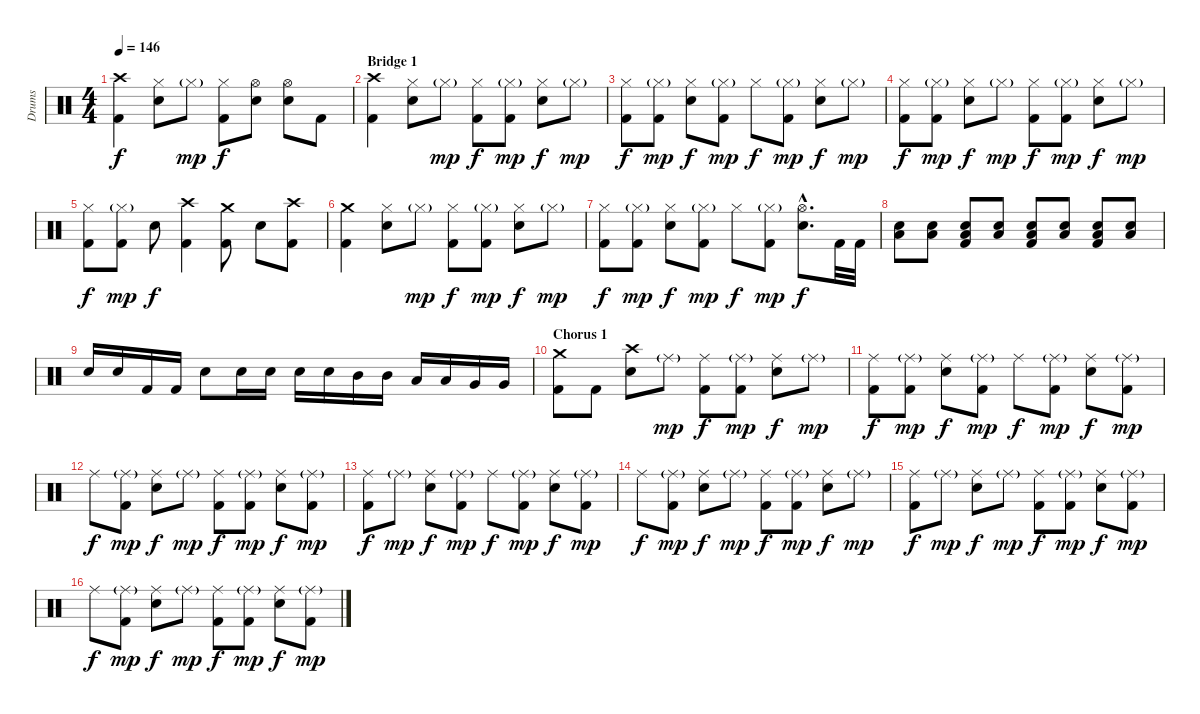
\track ("Drums" "Drums") {instrument percussion}
\staff {score}
\articulation defaults
\ts (4 4)
\tempo 146
\clef neutral
\ks c
("Crash high (hit)" "Kick (hit) 2").4{dy f} ("Hi-Hat (closed)" "Snare (hit) 2").8 "Hi-Hat (closed)"{g}.8{dy mp} ("Hi-Hat (closed)" "Kick (hit) 2").8{dy f} ("Hi-Hat (open)" "Snare (hit) 2").8 ("Hi-Hat (open)" "Snare (hit) 2").8 "Kick (hit) 2".8 |
\section ("" "Bridge 1")
("Crash high (hit)" "Kick (hit) 2").4 ("Hi-Hat (closed)" "Snare (hit) 2").8 "Hi-Hat (closed)"{g}.8{dy mp} ("Hi-Hat (closed)" "Kick (hit) 2").8{dy f} ("Hi-Hat (closed)"{g} "Kick (hit) 2").8{dy mp} ("Hi-Hat (closed)" "Snare (hit) 2").8{dy f} "Hi-Hat (closed)"{g}.8{dy mp} |
("Hi-Hat (closed)" "Kick (hit) 2").8{dy f} ("Hi-Hat (closed)"{g} "Kick (hit) 2").8{dy mp} ("Hi-Hat (closed)" "Snare (hit) 2").8{dy f} ("Hi-Hat (closed)"{g} "Kick (hit) 2").8{dy mp} "Hi-Hat (closed)".8{dy f} ("Hi-Hat (closed)"{g} "Kick (hit) 2").8{dy mp} ("Hi-Hat (closed)" "Snare (hit) 2").8{dy f} "Hi-Hat (closed)"{g}.8{dy mp} |
("Hi-Hat (closed)" "Kick (hit) 2").8{dy f} ("Hi-Hat (closed)"{g} "Kick (hit) 2").8{dy mp} ("Hi-Hat (closed)" "Snare (hit) 2").8{dy f} "Hi-Hat (closed)"{g}.8{dy mp} ("Hi-Hat (closed)" "Kick (hit) 2").8{dy f} ("Hi-Hat (closed)"{g} "Kick (hit) 2").8{dy mp} ("Hi-Hat (closed)" "Snare (hit) 2").8{dy f} "Hi-Hat (closed)"{g}.8{dy mp} |
("Hi-Hat (closed)" "Kick (hit) 2").8{dy f} ("Hi-Hat (closed)"{g} "Kick (hit) 2").8{dy mp} "Snare (hit) 2".8{dy f} ("Crash high (hit)" "Kick (hit) 2").4 ("Crash medium (hit)" "Kick (hit) 2").8 "Snare (hit) 2".8 ("Crash high (hit)" "Kick (hit) 2").8 |
("Crash medium (hit)" "Kick (hit) 2").4 ("Hi-Hat (closed)" "Snare (hit) 2").8 "Hi-Hat (closed)"{g}.8{dy mp} ("Hi-Hat (closed)" "Kick (hit) 2").8{dy f} ("Hi-Hat (closed)"{g} "Kick (hit) 2").8{dy mp} ("Hi-Hat (closed)" "Snare (hit) 2").8{dy f} "Hi-Hat (closed)"{g}.8{dy mp} |
("Hi-Hat (closed)" "Kick (hit) 2").8{dy f} ("Hi-Hat (closed)"{g} "Kick (hit) 2").8{dy mp} ("Hi-Hat (closed)" "Snare (hit) 2").8{dy f} ("Hi-Hat (closed)"{g} "Kick (hit) 2").8{dy mp} "Hi-Hat (closed)".8{dy f} ("Hi-Hat (closed)"{g} "Kick (hit) 2").8{dy mp} ("Hi-Hat (open)"{hac} "Snare (hit) 2"{hac}).8{d dy f} "Kick (hit) 2".32 "Kick (hit) 2".32 |
("Low Floor Tom (hit)" "Snare (hit) 2").8 ("Low Floor Tom (hit)" "Snare (hit) 2").8 ("Low Floor Tom (hit)" "Snare (hit) 2" "Kick (hit) 2").8 ("Low Floor Tom (hit)" "Snare (hit) 2").8 ("Low Floor Tom (hit)" "Snare (hit) 2" "Kick (hit) 2").8 ("Low Floor Tom (hit)" "Snare (hit) 2").8 ("Low Floor Tom (hit)" "Snare (hit) 2" "Kick (hit) 2").8 ("Low Floor Tom (hit)" "Snare (hit) 2").8 |
"Snare (hit) 2".16 "Snare (hit) 2".16 "Kick (hit) 2".16 "Kick (hit) 2".16 "Snare (hit) 2".8 "Snare (hit) 2".16 "Snare (hit) 2".16 "Snare (hit) 2".16 "Snare (hit) 2".16 "Mid Tom (hit)".16 "Mid Tom (hit)".16 "Low Tom (hit)".16 "Low Tom (hit)".16 "Very Low Tom (hit)".16 "Very Low Tom (hit)".16 |
\section ("" "Chorus 1")
("Crash medium (hit)" "Kick (hit) 2").8 "Kick (hit) 2".8 ("Crash high (hit)" "Snare (hit) 2").8 "Ride (middle)"{g}.8{dy mp} ("Ride (middle)" "Kick (hit) 2").8{dy f} ("Ride (middle)"{g} "Kick (hit) 2").8{dy mp} ("Ride (middle)" "Snare (hit) 2").8{dy f} "Ride (middle)"{g}.8{dy mp} |
("Ride (middle)" "Kick (hit) 2").8{dy f} ("Ride (middle)"{g} "Kick (hit) 2").8{dy mp} ("Ride (middle)" "Snare (hit) 2").8{dy f} ("Ride (middle)"{g} "Kick (hit) 2").8{dy mp} "Ride (middle)".8{dy f} ("Ride (middle)"{g} "Kick (hit) 2").8{dy mp} ("Ride (middle)" "Snare (hit) 2").8{dy f} ("Ride (middle)"{g} "Kick (hit) 2").8{dy mp} |
"Ride (middle)".8{dy f} ("Ride (middle)"{g} "Kick (hit) 2").8{dy mp} ("Ride (middle)" "Snare (hit) 2").8{dy f} "Ride (middle)"{g}.8{dy mp} ("Ride (middle)" "Kick (hit) 2").8{dy f} ("Ride (middle)"{g} "Kick (hit) 2").8{dy mp} ("Ride (middle)" "Snare (hit) 2").8{dy f} ("Ride (middle)"{g} "Kick (hit) 2").8{dy mp} |
("Ride (middle)" "Kick (hit) 2").8{dy f} "Ride (middle)"{g}.8{dy mp} ("Ride (middle)" "Snare (hit) 2").8{dy f} ("Ride (middle)"{g} "Kick (hit) 2").8{dy mp} "Ride (middle)".8{dy f} ("Ride (middle)"{g} "Kick (hit) 2").8{dy mp} ("Ride (middle)" "Snare (hit) 2").8{dy f} ("Ride (middle)"{g} "Kick (hit) 2").8{dy mp} |
"Ride (middle)".8{dy f} ("Ride (middle)"{g} "Kick (hit) 2").8{dy mp} ("Ride (middle)" "Snare (hit) 2").8{dy f} "Ride (middle)"{g}.8{dy mp} ("Ride (middle)" "Kick (hit) 2").8{dy f} ("Ride (middle)"{g} "Kick (hit) 2").8{dy mp} ("Ride (middle)" "Snare (hit) 2").8{dy f} "Ride (middle)"{g}.8{dy mp} |
("Ride (middle)" "Kick (hit) 2").8{dy f} "Ride (middle)"{g}.8{dy mp} ("Ride (middle)" "Snare (hit) 2").8{dy f} "Ride (middle)"{g}.8{dy mp} ("Ride (middle)" "Kick (hit) 2").8{dy f} ("Ride (middle)"{g} "Kick (hit) 2").8{dy mp} ("Ride (middle)" "Snare (hit) 2").8{dy f} ("Ride (middle)"{g} "Kick (hit) 2").8{dy mp} |
"Ride (middle)".8{dy f} ("Ride (middle)"{g} "Kick (hit) 2").8{dy mp} ("Ride (middle)" "Snare (hit) 2").8{dy f} "Ride (middle)"{g}.8{dy mp} ("Ride (middle)" "Kick (hit) 2").8{dy f} ("Ride (middle)"{g} "Kick (hit) 2").8{dy mp} ("Ride (middle)" "Snare (hit) 2").8{dy f} ("Ride (middle)"{g} "Kick (hit) 2").8{dy mp}
